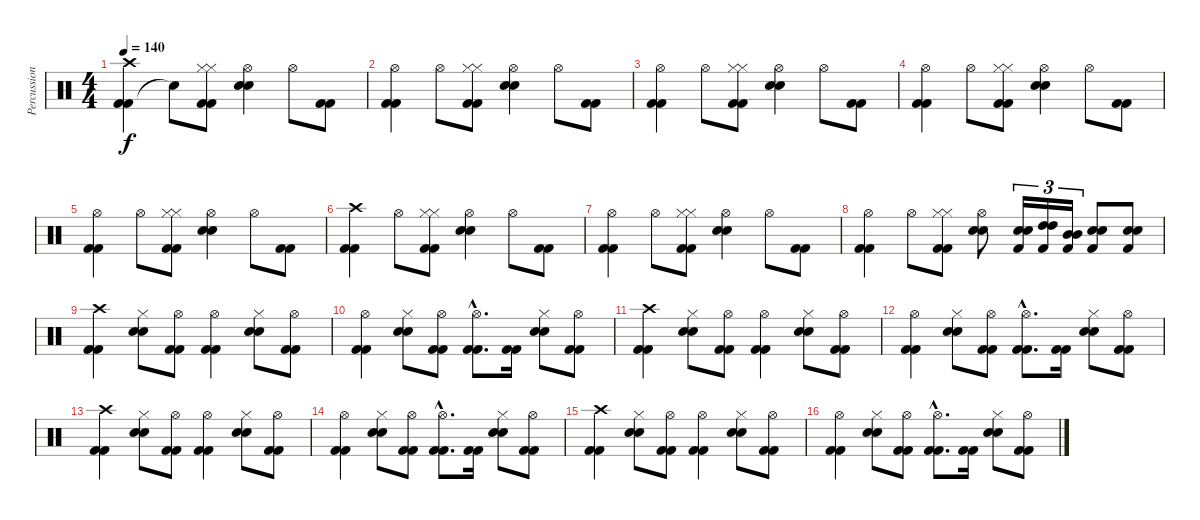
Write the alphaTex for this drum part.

\track ("Percussion" "Percussion") {instrument percussion}
\staff {score}
\articulation defaults
\ts (4 4)
\tempo 140
\clef neutral
\ks c
("Kick (hit) 2" "Kick (hit) 2" "Crash high (hit)").4{dy f} "Snare (hit)"{t}.8 ("Kick (hit) 2" "Kick (hit) 2" "Hi-Hat (closed)" "Hi-Hat (closed)").8 ("Snare (hit) 2" "Snare (hit) 2" "Hi-Hat (open)").4 "Hi-Hat (open)".8 ("Kick (hit) 2" "Kick (hit) 2").8 |
("Kick (hit) 2" "Kick (hit) 2" "Hi-Hat (open)").4 "Hi-Hat (open)".8 ("Kick (hit) 2" "Kick (hit) 2" "Hi-Hat (closed)" "Hi-Hat (closed)").8 ("Snare (hit) 2" "Snare (hit) 2" "Hi-Hat (open)").4 "Hi-Hat (open)".8 ("Kick (hit) 2" "Kick (hit) 2").8 |
("Kick (hit) 2" "Kick (hit) 2" "Hi-Hat (open)").4 "Hi-Hat (open)".8 ("Kick (hit) 2" "Kick (hit) 2" "Hi-Hat (closed)" "Hi-Hat (closed)").8 ("Snare (hit) 2" "Snare (hit) 2" "Hi-Hat (open)").4 "Hi-Hat (open)".8 ("Kick (hit) 2" "Kick (hit) 2").8 |
("Kick (hit) 2" "Kick (hit) 2" "Hi-Hat (open)").4 "Hi-Hat (open)".8 ("Kick (hit) 2" "Kick (hit) 2" "Hi-Hat (closed)" "Hi-Hat (closed)").8 ("Snare (hit) 2" "Snare (hit) 2" "Hi-Hat (open)").4 "Hi-Hat (open)".8 ("Kick (hit) 2" "Kick (hit) 2").8 |
("Kick (hit) 2" "Kick (hit) 2" "Hi-Hat (open)").4 "Hi-Hat (open)".8 ("Kick (hit) 2" "Kick (hit) 2" "Hi-Hat (closed)" "Hi-Hat (closed)").8 ("Snare (hit) 2" "Snare (hit) 2" "Hi-Hat (open)").4 "Hi-Hat (open)".8 ("Kick (hit) 2" "Kick (hit) 2").8 |
("Kick (hit) 2" "Kick (hit) 2" "Crash high (hit)").4 "Hi-Hat (open)".8 ("Kick (hit) 2" "Kick (hit) 2" "Hi-Hat (closed)" "Hi-Hat (closed)").8 ("Snare (hit) 2" "Snare (hit) 2" "Hi-Hat (open)").4 "Hi-Hat (open)".8 ("Kick (hit) 2" "Kick (hit) 2").8 |
("Kick (hit) 2" "Kick (hit) 2" "Hi-Hat (open)").4 "Hi-Hat (open)".8 ("Kick (hit) 2" "Kick (hit) 2" "Hi-Hat (closed)" "Hi-Hat (closed)").8 ("Snare (hit) 2" "Snare (hit) 2" "Hi-Hat (open)").4 "Hi-Hat (open)".8 ("Kick (hit) 2" "Kick (hit) 2").8 |
("Kick (hit) 2" "Kick (hit) 2" "Hi-Hat (open)").4 "Hi-Hat (open)".8 ("Kick (hit) 2" "Kick (hit) 2" "Hi-Hat (closed)" "Hi-Hat (closed)").8 ("Snare (hit) 2" "Snare (hit) 2" "Hi-Hat (open)").8 ("Kick (hit) 2" "Snare (hit) 2" "Snare (hit) 2").16{tu (3 2)} ("Kick (hit) 2" "High Tom (hit)" "High Tom (hit)").16{tu (3 2)} ("Kick (hit) 2" "Mid Tom (hit)" "Mid Tom (hit)").16{tu (3 2)} ("Kick (hit) 2" "Snare (hit) 2" "Snare (hit) 2").8 ("Kick (hit) 2" "Snare (hit) 2" "Snare (hit) 2").8 |
("Kick (hit) 2" "Kick (hit) 2" "Crash high (hit)").4 ("Snare (hit) 2" "Snare (hit) 2" "Hi-Hat (closed)").8 ("Kick (hit) 2" "Kick (hit) 2" "Hi-Hat (open)").8 ("Kick (hit) 2" "Kick (hit) 2" "Hi-Hat (open)").4 ("Snare (hit) 2" "Snare (hit) 2" "Hi-Hat (closed)").8 ("Kick (hit) 2" "Kick (hit) 2" "Hi-Hat (open)").8 |
("Kick (hit) 2" "Kick (hit) 2" "Hi-Hat (open)").4 ("Snare (hit) 2" "Snare (hit) 2" "Hi-Hat (closed)").8 ("Kick (hit) 2" "Kick (hit) 2" "Hi-Hat (open)").8 ("Kick (hit) 2"{hac} "Kick (hit) 2"{hac} "Hi-Hat (open)"{hac}).8{d} ("Kick (hit) 2" "Kick (hit) 2").16 ("Snare (hit) 2" "Snare (hit) 2" "Hi-Hat (closed)").8 ("Kick (hit) 2" "Kick (hit) 2" "Hi-Hat (open)").8 |
("Kick (hit) 2" "Kick (hit) 2" "Crash high (hit)").4 ("Snare (hit) 2" "Snare (hit) 2" "Hi-Hat (closed)").8 ("Kick (hit) 2" "Kick (hit) 2" "Hi-Hat (open)").8 ("Kick (hit) 2" "Kick (hit) 2" "Hi-Hat (open)").4 ("Snare (hit) 2" "Snare (hit) 2" "Hi-Hat (closed)").8 ("Kick (hit) 2" "Kick (hit) 2" "Hi-Hat (open)").8 |
("Kick (hit) 2" "Kick (hit) 2" "Hi-Hat (open)").4 ("Snare (hit) 2" "Snare (hit) 2" "Hi-Hat (closed)").8 ("Kick (hit) 2" "Kick (hit) 2" "Hi-Hat (open)").8 ("Kick (hit) 2"{hac} "Kick (hit) 2"{hac} "Hi-Hat (open)"{hac}).8{d} ("Kick (hit) 2" "Kick (hit) 2").16 ("Snare (hit) 2" "Snare (hit) 2" "Hi-Hat (closed)").8 ("Kick (hit) 2" "Kick (hit) 2" "Hi-Hat (open)").8 |
("Kick (hit) 2" "Kick (hit) 2" "Crash high (hit)").4 ("Snare (hit) 2" "Snare (hit) 2" "Hi-Hat (closed)").8 ("Kick (hit) 2" "Kick (hit) 2" "Hi-Hat (open)").8 ("Kick (hit) 2" "Kick (hit) 2" "Hi-Hat (open)").4 ("Snare (hit) 2" "Snare (hit) 2" "Hi-Hat (closed)").8 ("Kick (hit) 2" "Kick (hit) 2" "Hi-Hat (open)").8 |
("Kick (hit) 2" "Kick (hit) 2" "Hi-Hat (open)").4 ("Snare (hit) 2" "Snare (hit) 2" "Hi-Hat (closed)").8 ("Kick (hit) 2" "Kick (hit) 2" "Hi-Hat (open)").8 ("Kick (hit) 2"{hac} "Kick (hit) 2"{hac} "Hi-Hat (open)"{hac}).8{d} ("Kick (hit) 2" "Kick (hit) 2").16 ("Snare (hit) 2" "Snare (hit) 2" "Hi-Hat (closed)").8 ("Kick (hit) 2" "Kick (hit) 2" "Hi-Hat (open)").8 |
("Kick (hit) 2" "Kick (hit) 2" "Crash high (hit)").4 ("Snare (hit) 2" "Snare (hit) 2" "Hi-Hat (closed)").8 ("Kick (hit) 2" "Kick (hit) 2" "Hi-Hat (open)").8 ("Kick (hit) 2" "Kick (hit) 2" "Hi-Hat (open)").4 ("Snare (hit) 2" "Snare (hit) 2" "Hi-Hat (closed)").8 ("Kick (hit) 2" "Kick (hit) 2" "Hi-Hat (open)").8 |
("Kick (hit) 2" "Kick (hit) 2" "Hi-Hat (open)").4 ("Snare (hit) 2" "Snare (hit) 2" "Hi-Hat (closed)").8 ("Kick (hit) 2" "Kick (hit) 2" "Hi-Hat (open)").8 ("Kick (hit) 2"{hac} "Kick (hit) 2"{hac} "Hi-Hat (open)"{hac}).8{d} ("Kick (hit) 2" "Kick (hit) 2").16 ("Snare (hit) 2" "Snare (hit) 2" "Hi-Hat (closed)").8 ("Kick (hit) 2" "Kick (hit) 2" "Hi-Hat (open)").8
